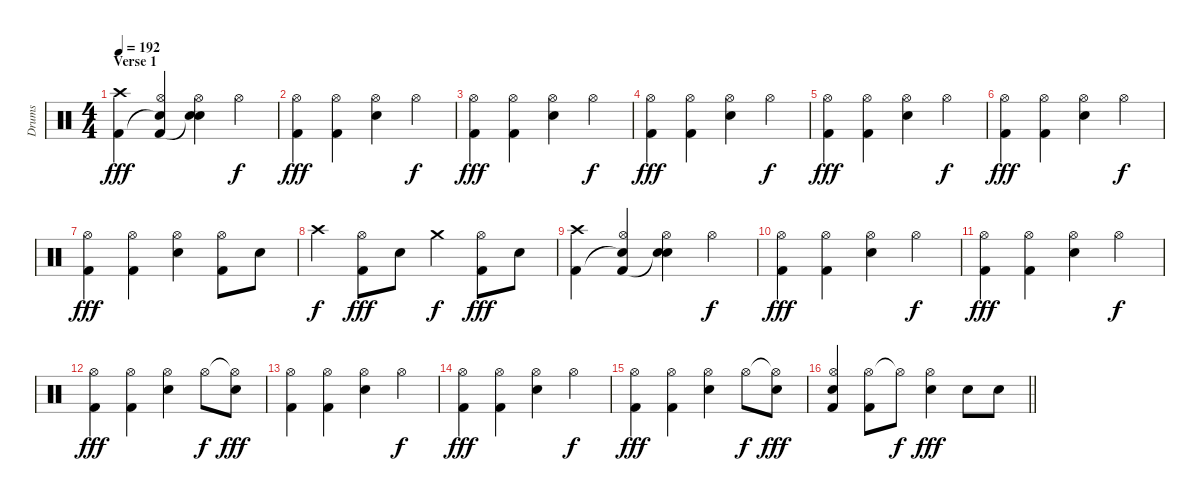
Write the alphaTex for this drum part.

\track ("Drums" "Drums") {instrument percussion}
\staff {score}
\articulation defaults
\ts (4 4)
\section ("" "Verse 1")
\tempo 192
\clef neutral
\ks c
("Crash high (hit)" "Kick (hit) 2").4{dy fff} ("Hi-Hat (open)" "Snare (hit)"{t} "Kick (hit) 2").4 ("Hi-Hat (open)" "Snare (hit) 2" "Snare (hit)"{t}).4 "Hi-Hat (open)".4{dy f} |
("Hi-Hat (open)" "Kick (hit) 2").4{dy fff} ("Hi-Hat (open)" "Kick (hit) 2").4 ("Hi-Hat (open)" "Snare (hit) 2").4 "Hi-Hat (open)".4{dy f} |
("Hi-Hat (open)" "Kick (hit) 2").4{dy fff} ("Hi-Hat (open)" "Kick (hit) 2").4 ("Hi-Hat (open)" "Snare (hit) 2").4 "Hi-Hat (open)".4{dy f} |
("Hi-Hat (open)" "Kick (hit) 2").4{dy fff} ("Hi-Hat (open)" "Kick (hit) 2").4 ("Hi-Hat (open)" "Snare (hit) 2").4 "Hi-Hat (open)".4{dy f} |
("Hi-Hat (open)" "Kick (hit) 2").4{dy fff} ("Hi-Hat (open)" "Kick (hit) 2").4 ("Hi-Hat (open)" "Snare (hit) 2").4 "Hi-Hat (open)".4{dy f} |
("Hi-Hat (open)" "Kick (hit) 2").4{dy fff} ("Hi-Hat (open)" "Kick (hit) 2").4 ("Hi-Hat (open)" "Snare (hit) 2").4 "Hi-Hat (open)".4{dy f} |
("Hi-Hat (open)" "Kick (hit) 2").4{dy fff} ("Hi-Hat (open)" "Kick (hit) 2").4 ("Hi-Hat (open)" "Snare (hit) 2").4 ("Hi-Hat (open)" "Kick (hit) 2").8 "Snare (hit) 2".8 |
"Crash high (hit)".4{dy f} ("Hi-Hat (open)" "Kick (hit) 2").8{dy fff} "Snare (hit) 2".8 "Crash medium (hit)".4{dy f} ("Hi-Hat (open)" "Kick (hit) 2").8{dy fff} "Snare (hit) 2".8 |
("Crash high (hit)" "Kick (hit) 2").4 ("Hi-Hat (open)" "Snare (hit)"{t} "Kick (hit) 2").4 ("Hi-Hat (open)" "Snare (hit) 2" "Snare (hit)"{t}).4 "Hi-Hat (open)".4{dy f} |
("Hi-Hat (open)" "Kick (hit) 2").4{dy fff} ("Hi-Hat (open)" "Kick (hit) 2").4 ("Hi-Hat (open)" "Snare (hit) 2").4 "Hi-Hat (open)".4{dy f} |
("Hi-Hat (open)" "Kick (hit) 2").4{dy fff} ("Hi-Hat (open)" "Kick (hit) 2").4 ("Hi-Hat (open)" "Snare (hit) 2").4 "Hi-Hat (open)".4{dy f} |
("Hi-Hat (open)" "Kick (hit) 2").4{dy fff} ("Hi-Hat (open)" "Kick (hit) 2").4 ("Hi-Hat (open)" "Snare (hit) 2").4 "Hi-Hat (open)".8{dy f} ("Hi-Hat (open)"{t} "Snare (hit) 2").8{dy fff} |
("Hi-Hat (open)" "Kick (hit) 2").4 ("Hi-Hat (open)" "Kick (hit) 2").4 ("Hi-Hat (open)" "Snare (hit) 2").4 "Hi-Hat (open)".4{dy f} |
("Hi-Hat (open)" "Kick (hit) 2").4{dy fff} ("Hi-Hat (open)" "Kick (hit) 2").4 ("Hi-Hat (open)" "Snare (hit) 2").4 "Hi-Hat (open)".4{dy f} |
("Hi-Hat (open)" "Kick (hit) 2").4{dy fff} ("Hi-Hat (open)" "Kick (hit) 2").4 ("Hi-Hat (open)" "Snare (hit) 2").4 "Hi-Hat (open)".8{dy f} ("Hi-Hat (open)"{t} "Snare (hit) 2").8{dy fff} |
\barLineRight lightlight
("Hi-Hat (open)" "Snare (hit) 2" "Kick (hit) 2").4 ("Hi-Hat (open)" "Kick (hit) 2").8 "Hi-Hat (open)"{t}.8{dy f} ("Hi-Hat (open)" "Snare (hit) 2").4{dy fff} "Snare (hit) 2".8 "Snare (hit) 2".8
